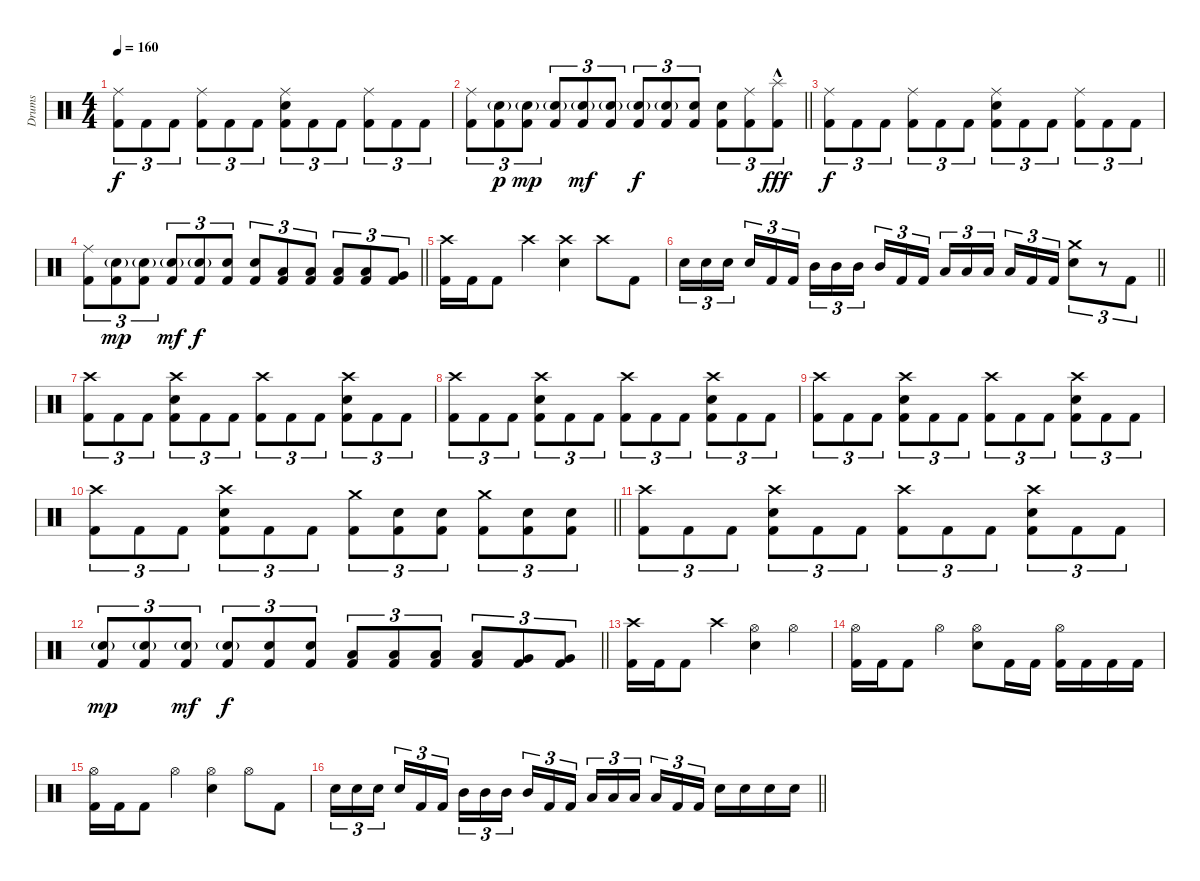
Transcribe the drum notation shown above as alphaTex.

\track ("Drums" "Drums") {instrument percussion}
\staff {score}
\articulation defaults
\ts (4 4)
\tempo 160
\clef neutral
\ks c
("Ride (middle)" "Kick (hit) 2").8{tu (3 2) dy f} "Kick (hit) 2".8{tu (3 2)} "Kick (hit) 2".8{tu (3 2)} ("Ride (middle)" "Kick (hit) 2").8{tu (3 2)} "Kick (hit) 2".8{tu (3 2)} "Kick (hit) 2".8{tu (3 2)} ("Ride (middle)" "Electric Snare (hit)" "Kick (hit) 2").8{tu (3 2)} "Kick (hit) 2".8{tu (3 2)} "Kick (hit) 2".8{tu (3 2)} ("Ride (middle)" "Kick (hit) 2").8{tu (3 2)} "Kick (hit) 2".8{tu (3 2)} "Kick (hit) 2".8{tu (3 2)} |
\barLineRight lightlight
("Ride (middle)" "Kick (hit) 2").8{tu (3 2)} ("Electric Snare (hit)"{g} "Kick (hit) 2").8{tu (3 2) dy p} ("Electric Snare (hit)"{g} "Kick (hit) 2").8{tu (3 2) dy mp} ("Electric Snare (hit)"{g} "Kick (hit) 2").8{tu (3 2)} ("Electric Snare (hit)"{g} "Kick (hit) 2").8{tu (3 2) dy mf} ("Electric Snare (hit)"{g} "Kick (hit) 2").8{tu (3 2)} ("Electric Snare (hit)"{g} "Kick (hit) 2").8{tu (3 2) dy f} ("Electric Snare (hit)"{g} "Kick (hit) 2").8{tu (3 2)} ("Electric Snare (hit)" "Kick (hit) 2").8{tu (3 2)} ("Electric Snare (hit)" "Kick (hit) 2").8{tu (3 2)} ("Ride (middle)" "Kick (hit) 2").8{tu (3 2)} ("Splash (hit)"{hac} "Kick (hit) 2").8{tu (3 2) dy fff} |
("Ride (middle)" "Kick (hit) 2").8{tu (3 2) dy f} "Kick (hit) 2".8{tu (3 2)} "Kick (hit) 2".8{tu (3 2)} ("Ride (middle)" "Kick (hit) 2").8{tu (3 2)} "Kick (hit) 2".8{tu (3 2)} "Kick (hit) 2".8{tu (3 2)} ("Ride (middle)" "Electric Snare (hit)" "Kick (hit) 2").8{tu (3 2)} "Kick (hit) 2".8{tu (3 2)} "Kick (hit) 2".8{tu (3 2)} ("Ride (middle)" "Kick (hit) 2").8{tu (3 2)} "Kick (hit) 2".8{tu (3 2)} "Kick (hit) 2".8{tu (3 2)} |
\barLineRight lightlight
("Ride (middle)" "Kick (hit) 2").8{tu (3 2)} ("Electric Snare (hit)"{g} "Kick (hit) 2").8{tu (3 2) dy mp} ("Electric Snare (hit)"{g} "Kick (hit) 2").8{tu (3 2)} ("Electric Snare (hit)"{g} "Kick (hit) 2").8{tu (3 2) dy mf} ("Electric Snare (hit)"{g} "Kick (hit) 2").8{tu (3 2) dy f} ("Electric Snare (hit)" "Kick (hit) 2").8{tu (3 2)} ("Electric Snare (hit)" "Kick (hit) 2").8{tu (3 2)} ("Low Tom (hit)" "Kick (hit) 2").8{tu (3 2)} ("Low Tom (hit)" "Kick (hit) 2").8{tu (3 2)} ("Low Tom (hit)" "Kick (hit) 2").8{tu (3 2)} ("Low Tom (hit)" "Kick (hit) 2").8{tu (3 2)} ("Very Low Tom (hit)" "Kick (hit) 2").8{tu (3 2)} |
("Crash high (hit)" "Kick (hit) 2").16 "Kick (hit) 2".16 "Kick (hit) 2".8 "Crash high (hit)".4 ("Crash high (hit)" "Electric Snare (hit)").4 "Crash high (hit)".8 "Kick (hit) 2".8 |
\barLineRight lightlight "Electric Snare (hit)".16{tu (3 2)} "Electric Snare (hit)".16{tu (3 2)} "Electric Snare (hit)".16{tu (3 2) beam splitsecondary} "Electric Snare (hit)".16{tu (3 2)} "Kick (hit) 2".16{tu (3 2)} "Kick (hit) 2".16{tu (3 2)} "Mid Tom (hit)".16{tu (3 2)} "Mid Tom (hit)".16{tu (3 2)} "Mid Tom (hit)".16{tu (3 2) beam splitsecondary} "Mid Tom (hit)".16{tu (3 2)} "Kick (hit) 2".16{tu (3 2)} "Kick (hit) 2".16{tu (3 2)} "Low Tom (hit)".16{tu (3 2)} "Low Tom (hit)".16{tu (3 2)} "Low Tom (hit)".16{tu (3 2) beam splitsecondary} "Low Tom (hit)".16{tu (3 2)} "Kick (hit) 2".16{tu (3 2)} "Kick (hit) 2".16{tu (3 2)}
("Crash medium (hit)" "Electric Snare (hit)").8{tu (3 2)} r.8{tu (3 2)} "Kick (hit) 2".8{tu (3 2)} |
("Crash high (hit)" "Kick (hit) 2").8{tu (3 2)} "Kick (hit) 2".8{tu (3 2)} "Kick (hit) 2".8{tu (3 2)} ("Crash high (hit)" "Electric Snare (hit)" "Kick (hit) 2").8{tu (3 2)} "Kick (hit) 2".8{tu (3 2)} "Kick (hit) 2".8{tu (3 2)} ("Crash high (hit)" "Kick (hit) 2").8{tu (3 2)} "Kick (hit) 2".8{tu (3 2)} "Kick (hit) 2".8{tu (3 2)} ("Crash high (hit)" "Electric Snare (hit)" "Kick (hit) 2").8{tu (3 2)} "Kick (hit) 2".8{tu (3 2)} "Kick (hit) 2".8{tu (3 2)} |
("Crash high (hit)" "Kick (hit) 2").8{tu (3 2)} "Kick (hit) 2".8{tu (3 2)} "Kick (hit) 2".8{tu (3 2)} ("Crash high (hit)" "Electric Snare (hit)" "Kick (hit) 2").8{tu (3 2)} "Kick (hit) 2".8{tu (3 2)} "Kick (hit) 2".8{tu (3 2)} ("Crash high (hit)" "Kick (hit) 2").8{tu (3 2)} "Kick (hit) 2".8{tu (3 2)} "Kick (hit) 2".8{tu (3 2)} ("Crash high (hit)" "Electric Snare (hit)" "Kick (hit) 2").8{tu (3 2)} "Kick (hit) 2".8{tu (3 2)} "Kick (hit) 2".8{tu (3 2)} |
("Crash high (hit)" "Kick (hit) 2").8{tu (3 2)} "Kick (hit) 2".8{tu (3 2)} "Kick (hit) 2".8{tu (3 2)} ("Crash high (hit)" "Electric Snare (hit)" "Kick (hit) 2").8{tu (3 2)} "Kick (hit) 2".8{tu (3 2)} "Kick (hit) 2".8{tu (3 2)} ("Crash high (hit)" "Kick (hit) 2").8{tu (3 2)} "Kick (hit) 2".8{tu (3 2)} "Kick (hit) 2".8{tu (3 2)} ("Crash high (hit)" "Electric Snare (hit)" "Kick (hit) 2").8{tu (3 2)} "Kick (hit) 2".8{tu (3 2)} "Kick (hit) 2".8{tu (3 2)} |
\barLineRight lightlight
("Crash high (hit)" "Kick (hit) 2").8{tu (3 2)} "Kick (hit) 2".8{tu (3 2)} "Kick (hit) 2".8{tu (3 2)} ("Crash high (hit)" "Electric Snare (hit)" "Kick (hit) 2").8{tu (3 2)} "Kick (hit) 2".8{tu (3 2)} "Kick (hit) 2".8{tu (3 2)} ("Crash medium (hit)" "Kick (hit) 2").8{tu (3 2)} ("Electric Snare (hit)" "Kick (hit) 2").8{tu (3 2)} ("Electric Snare (hit)" "Kick (hit) 2").8{tu (3 2)} ("Crash medium (hit)" "Kick (hit) 2").8{tu (3 2)} ("Electric Snare (hit)" "Kick (hit) 2").8{tu (3 2)} ("Electric Snare (hit)" "Kick (hit) 2").8{tu (3 2)} |
("Crash high (hit)" "Kick (hit) 2").8{tu (3 2)} "Kick (hit) 2".8{tu (3 2)} "Kick (hit) 2".8{tu (3 2)} ("Crash high (hit)" "Electric Snare (hit)" "Kick (hit) 2").8{tu (3 2)} "Kick (hit) 2".8{tu (3 2)} "Kick (hit) 2".8{tu (3 2)} ("Crash high (hit)" "Kick (hit) 2").8{tu (3 2)} "Kick (hit) 2".8{tu (3 2)} "Kick (hit) 2".8{tu (3 2)} ("Crash high (hit)" "Electric Snare (hit)" "Kick (hit) 2").8{tu (3 2)} "Kick (hit) 2".8{tu (3 2)} "Kick (hit) 2".8{tu (3 2)} |
\barLineRight lightlight
("Electric Snare (hit)"{g} "Kick (hit) 2").8{tu (3 2) dy mp} ("Electric Snare (hit)"{g} "Kick (hit) 2").8{tu (3 2)} ("Electric Snare (hit)"{g} "Kick (hit) 2").8{tu (3 2) dy mf} ("Electric Snare (hit)"{g} "Kick (hit) 2").8{tu (3 2) dy f} ("Electric Snare (hit)" "Kick (hit) 2").8{tu (3 2)} ("Electric Snare (hit)" "Kick (hit) 2").8{tu (3 2)} ("Low Tom (hit)" "Kick (hit) 2").8{tu (3 2)} ("Low Tom (hit)" "Kick (hit) 2").8{tu (3 2)} ("Low Tom (hit)" "Kick (hit) 2").8{tu (3 2)} ("Low Tom (hit)" "Kick (hit) 2").8{tu (3 2)} ("Very Low Tom (hit)" "Kick (hit) 2").8{tu (3 2)} ("Very Low Tom (hit)" "Kick (hit) 2").8{tu (3 2)} |
("Crash high (hit)" "Kick (hit) 2").16 "Kick (hit) 2".16 "Kick (hit) 2".8 "Crash high (hit)".4 ("Hi-Hat (open)" "Electric Snare (hit)").4 "Hi-Hat (open)".4 |
("Hi-Hat (open)" "Kick (hit) 2").16 "Kick (hit) 2".16 "Kick (hit) 2".8 "Hi-Hat (open)".4 ("Hi-Hat (open)" "Electric Snare (hit)").8 "Kick (hit) 2".16 "Kick (hit) 2".16 ("Hi-Hat (open)" "Kick (hit) 2").16 "Kick (hit) 2".16 "Kick (hit) 2".16 "Kick (hit) 2".16 |
("Hi-Hat (open)" "Kick (hit) 2").16 "Kick (hit) 2".16 "Kick (hit) 2".8 "Hi-Hat (open)".4 ("Hi-Hat (open)" "Electric Snare (hit)").4 "Hi-Hat (open)".8 "Kick (hit) 2".8 |
\barLineRight lightlight "Electric Snare (hit)".16{tu (3 2)} "Electric Snare (hit)".16{tu (3 2)} "Electric Snare (hit)".16{tu (3 2) beam splitsecondary} "Electric Snare (hit)".16{tu (3 2)} "Kick (hit) 2".16{tu (3 2)} "Kick (hit) 2".16{tu (3 2)} "Mid Tom (hit)".16{tu (3 2)} "Mid Tom (hit)".16{tu (3 2)} "Mid Tom (hit)".16{tu (3 2) beam splitsecondary} "Mid Tom (hit)".16{tu (3 2)} "Kick (hit) 2".16{tu (3 2)} "Kick (hit) 2".16{tu (3 2)} "Low Tom (hit)".16{tu (3 2)} "Low Tom (hit)".16{tu (3 2)} "Low Tom (hit)".16{tu (3 2) beam splitsecondary} "Low Tom (hit)".16{tu (3 2)} "Kick (hit) 2".16{tu (3 2)} "Kick (hit) 2".16{tu (3 2)} "Electric Snare (hit)".16 "Electric Snare (hit)".16 "Electric Snare (hit)".16 "Electric Snare (hit)".16
